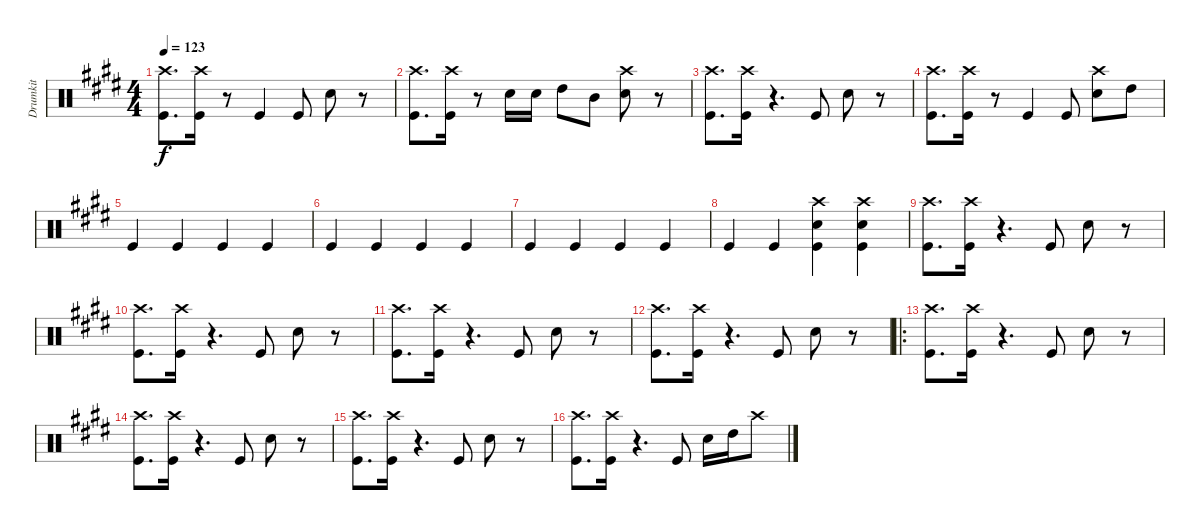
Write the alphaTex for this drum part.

\track ("Drumkit" "Drumkit") {instrument percussion}
\staff {score}
\articulation defaults
\ts (4 4)
\tempo 123
\clef neutral
\ks e
("Crash high (hit)" "Kick (hit)").8{d dy f} ("Crash high (hit)" "Kick (hit)").16 r.8 "Kick (hit)".4 "Kick (hit)".8 "Snare (hit) 2".8 r.8 |
("Crash high (hit)" "Kick (hit)").8{d} ("Crash high (hit)" "Kick (hit)").16 r.8 "Snare (hit) 2".16 "Snare (hit) 2".16 "High Tom (hit)".8 "Mid Tom (hit)".8 ("Crash high (hit)" "Snare (hit) 2").8 r.8 |
("Crash high (hit)" "Kick (hit)").8{d} ("Crash high (hit)" "Kick (hit)").16 r.4{d} "Kick (hit)".8 "Snare (hit) 2".8 r.8 |
("Crash high (hit)" "Kick (hit)").8{d} ("Crash high (hit)" "Kick (hit)").16 r.8 "Kick (hit)".4 "Kick (hit)".8 ("Crash high (hit)" "Snare (hit) 2").8 "High Tom (hit)".8 |
"Kick (hit)".4 "Kick (hit)".4 "Kick (hit)".4 "Kick (hit)".4 |
"Kick (hit)".4 "Kick (hit)".4 "Kick (hit)".4 "Kick (hit)".4 |
"Kick (hit)".4 "Kick (hit)".4 "Kick (hit)".4 "Kick (hit)".4 |
"Kick (hit)".4 "Kick (hit)".4 ("Crash high (hit)" "Snare (hit) 2" "Kick (hit)").4 ("Crash high (hit)" "Snare (hit) 2" "Kick (hit)").4 |
("Crash high (hit)" "Kick (hit)").8{d} ("Crash high (hit)" "Kick (hit)").16 r.4{d} "Kick (hit)".8 "Snare (hit) 2".8 r.8 |
("Crash high (hit)" "Kick (hit)").8{d} ("Crash high (hit)" "Kick (hit)").16 r.4{d} "Kick (hit)".8 "Snare (hit) 2".8 r.8 |
("Crash high (hit)" "Kick (hit)").8{d} ("Crash high (hit)" "Kick (hit)").16 r.4{d} "Kick (hit)".8 "Snare (hit) 2".8 r.8 |
("Crash high (hit)" "Kick (hit)").8{d} ("Crash high (hit)" "Kick (hit)").16 r.4{d} "Kick (hit)".8 "Snare (hit) 2".8 r.8 |
\ro
("Crash high (hit)" "Kick (hit)").8{d} ("Crash high (hit)" "Kick (hit)").16 r.4{d} "Kick (hit)".8 "Snare (hit) 2".8 r.8 |
("Crash high (hit)" "Kick (hit)").8{d} ("Crash high (hit)" "Kick (hit)").16 r.4{d} "Kick (hit)".8 "Snare (hit) 2".8 r.8 |
("Crash high (hit)" "Kick (hit)").8{d} ("Crash high (hit)" "Kick (hit)").16 r.4{d} "Kick (hit)".8 "Snare (hit) 2".8 r.8 |
("Crash high (hit)" "Kick (hit)").8{d} ("Crash high (hit)" "Kick (hit)").16 r.4{d} "Kick (hit)".8 "Snare (hit) 2".16 "High Tom (hit)".16 "Crash high (hit)".8
